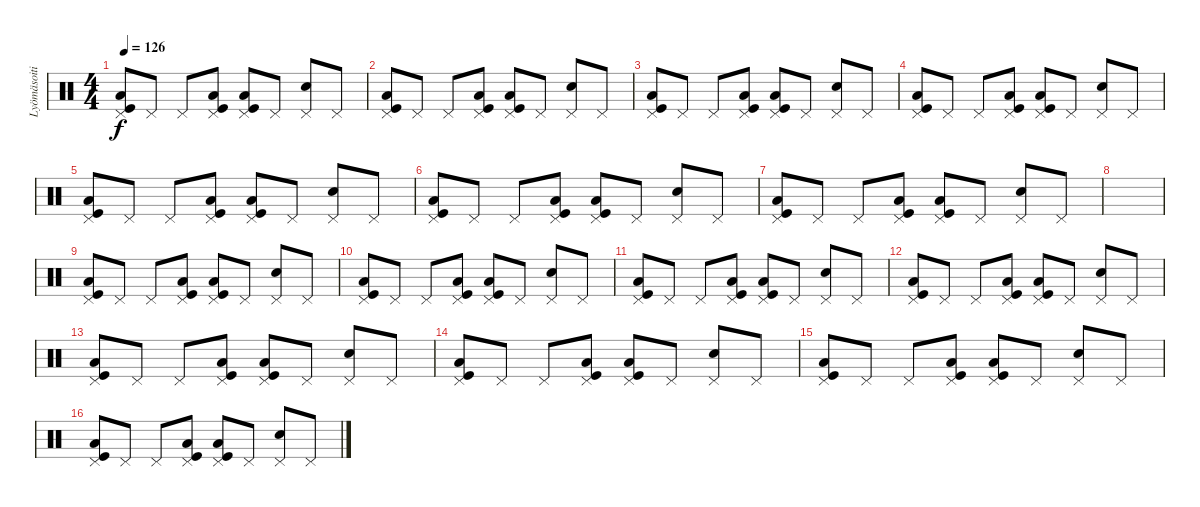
\track ("Lyömäsoitin" "Lyömäsoiti") {instrument percussion}
\staff {score}
\articulation defaults
\ts (4 4)
\tempo 126
\clef neutral
\ks c
("Kick (hit)" "Low Floor Tom (hit)" "Pedal Hi-Hat (hit)").8{dy f} "Pedal Hi-Hat (hit)".8 "Pedal Hi-Hat (hit)".8 ("Kick (hit)" "Low Floor Tom (hit)" "Pedal Hi-Hat (hit)").8 ("Kick (hit)" "Low Floor Tom (hit)" "Pedal Hi-Hat (hit)").8 "Pedal Hi-Hat (hit)".8 ("Snare (hit) 2" "Pedal Hi-Hat (hit)").8 "Pedal Hi-Hat (hit)".8 |
("Kick (hit)" "Low Floor Tom (hit)" "Pedal Hi-Hat (hit)").8 "Pedal Hi-Hat (hit)".8 "Pedal Hi-Hat (hit)".8 ("Kick (hit)" "Low Floor Tom (hit)" "Pedal Hi-Hat (hit)").8 ("Kick (hit)" "Low Floor Tom (hit)" "Pedal Hi-Hat (hit)").8 "Pedal Hi-Hat (hit)".8 ("Snare (hit) 2" "Pedal Hi-Hat (hit)").8 "Pedal Hi-Hat (hit)".8 |
("Kick (hit)" "Low Floor Tom (hit)" "Pedal Hi-Hat (hit)").8 "Pedal Hi-Hat (hit)".8 "Pedal Hi-Hat (hit)".8 ("Kick (hit)" "Low Floor Tom (hit)" "Pedal Hi-Hat (hit)").8 ("Kick (hit)" "Low Floor Tom (hit)" "Pedal Hi-Hat (hit)").8 "Pedal Hi-Hat (hit)".8 ("Snare (hit) 2" "Pedal Hi-Hat (hit)").8 "Pedal Hi-Hat (hit)".8 |
("Kick (hit)" "Low Floor Tom (hit)" "Pedal Hi-Hat (hit)").8 "Pedal Hi-Hat (hit)".8 "Pedal Hi-Hat (hit)".8 ("Kick (hit)" "Low Floor Tom (hit)" "Pedal Hi-Hat (hit)").8 ("Kick (hit)" "Low Floor Tom (hit)" "Pedal Hi-Hat (hit)").8 "Pedal Hi-Hat (hit)".8 ("Snare (hit) 2" "Pedal Hi-Hat (hit)").8 "Pedal Hi-Hat (hit)".8 |
("Kick (hit)" "Low Floor Tom (hit)" "Pedal Hi-Hat (hit)").8 "Pedal Hi-Hat (hit)".8 "Pedal Hi-Hat (hit)".8 ("Kick (hit)" "Low Floor Tom (hit)" "Pedal Hi-Hat (hit)").8 ("Kick (hit)" "Low Floor Tom (hit)" "Pedal Hi-Hat (hit)").8 "Pedal Hi-Hat (hit)".8 ("Snare (hit) 2" "Pedal Hi-Hat (hit)").8 "Pedal Hi-Hat (hit)".8 |
("Kick (hit)" "Low Floor Tom (hit)" "Pedal Hi-Hat (hit)").8 "Pedal Hi-Hat (hit)".8 "Pedal Hi-Hat (hit)".8 ("Kick (hit)" "Low Floor Tom (hit)" "Pedal Hi-Hat (hit)").8 ("Kick (hit)" "Low Floor Tom (hit)" "Pedal Hi-Hat (hit)").8 "Pedal Hi-Hat (hit)".8 ("Snare (hit) 2" "Pedal Hi-Hat (hit)").8 "Pedal Hi-Hat (hit)".8 |
("Kick (hit)" "Low Floor Tom (hit)" "Pedal Hi-Hat (hit)").8 "Pedal Hi-Hat (hit)".8 "Pedal Hi-Hat (hit)".8 ("Kick (hit)" "Low Floor Tom (hit)" "Pedal Hi-Hat (hit)").8 ("Kick (hit)" "Low Floor Tom (hit)" "Pedal Hi-Hat (hit)").8 "Pedal Hi-Hat (hit)".8 ("Snare (hit) 2" "Pedal Hi-Hat (hit)").8 "Pedal Hi-Hat (hit)".8 |
|
("Kick (hit)" "Low Floor Tom (hit)" "Pedal Hi-Hat (hit)").8 "Pedal Hi-Hat (hit)".8 "Pedal Hi-Hat (hit)".8 ("Kick (hit)" "Low Floor Tom (hit)" "Pedal Hi-Hat (hit)").8 ("Kick (hit)" "Low Floor Tom (hit)" "Pedal Hi-Hat (hit)").8 "Pedal Hi-Hat (hit)".8 ("Snare (hit) 2" "Pedal Hi-Hat (hit)").8 "Pedal Hi-Hat (hit)".8 |
("Kick (hit)" "Low Floor Tom (hit)" "Pedal Hi-Hat (hit)").8 "Pedal Hi-Hat (hit)".8 "Pedal Hi-Hat (hit)".8 ("Kick (hit)" "Low Floor Tom (hit)" "Pedal Hi-Hat (hit)").8 ("Kick (hit)" "Low Floor Tom (hit)" "Pedal Hi-Hat (hit)").8 "Pedal Hi-Hat (hit)".8 ("Snare (hit) 2" "Pedal Hi-Hat (hit)").8 "Pedal Hi-Hat (hit)".8 |
("Kick (hit)" "Low Floor Tom (hit)" "Pedal Hi-Hat (hit)").8 "Pedal Hi-Hat (hit)".8 "Pedal Hi-Hat (hit)".8 ("Kick (hit)" "Low Floor Tom (hit)" "Pedal Hi-Hat (hit)").8 ("Kick (hit)" "Low Floor Tom (hit)" "Pedal Hi-Hat (hit)").8 "Pedal Hi-Hat (hit)".8 ("Snare (hit) 2" "Pedal Hi-Hat (hit)").8 "Pedal Hi-Hat (hit)".8 |
("Kick (hit)" "Low Floor Tom (hit)" "Pedal Hi-Hat (hit)").8 "Pedal Hi-Hat (hit)".8 "Pedal Hi-Hat (hit)".8 ("Kick (hit)" "Low Floor Tom (hit)" "Pedal Hi-Hat (hit)").8 ("Kick (hit)" "Low Floor Tom (hit)" "Pedal Hi-Hat (hit)").8 "Pedal Hi-Hat (hit)".8 ("Snare (hit) 2" "Pedal Hi-Hat (hit)").8 "Pedal Hi-Hat (hit)".8 |
("Kick (hit)" "Low Floor Tom (hit)" "Pedal Hi-Hat (hit)").8 "Pedal Hi-Hat (hit)".8 "Pedal Hi-Hat (hit)".8 ("Kick (hit)" "Low Floor Tom (hit)" "Pedal Hi-Hat (hit)").8 ("Kick (hit)" "Low Floor Tom (hit)" "Pedal Hi-Hat (hit)").8 "Pedal Hi-Hat (hit)".8 ("Snare (hit) 2" "Pedal Hi-Hat (hit)").8 "Pedal Hi-Hat (hit)".8 |
("Kick (hit)" "Low Floor Tom (hit)" "Pedal Hi-Hat (hit)").8 "Pedal Hi-Hat (hit)".8 "Pedal Hi-Hat (hit)".8 ("Kick (hit)" "Low Floor Tom (hit)" "Pedal Hi-Hat (hit)").8 ("Kick (hit)" "Low Floor Tom (hit)" "Pedal Hi-Hat (hit)").8 "Pedal Hi-Hat (hit)".8 ("Snare (hit) 2" "Pedal Hi-Hat (hit)").8 "Pedal Hi-Hat (hit)".8 |
("Kick (hit)" "Low Floor Tom (hit)" "Pedal Hi-Hat (hit)").8 "Pedal Hi-Hat (hit)".8 "Pedal Hi-Hat (hit)".8 ("Kick (hit)" "Low Floor Tom (hit)" "Pedal Hi-Hat (hit)").8 ("Kick (hit)" "Low Floor Tom (hit)" "Pedal Hi-Hat (hit)").8 "Pedal Hi-Hat (hit)".8 ("Snare (hit) 2" "Pedal Hi-Hat (hit)").8 "Pedal Hi-Hat (hit)".8 |
("Kick (hit)" "Low Floor Tom (hit)" "Pedal Hi-Hat (hit)").8 "Pedal Hi-Hat (hit)".8 "Pedal Hi-Hat (hit)".8 ("Kick (hit)" "Low Floor Tom (hit)" "Pedal Hi-Hat (hit)").8 ("Kick (hit)" "Low Floor Tom (hit)" "Pedal Hi-Hat (hit)").8 "Pedal Hi-Hat (hit)".8 ("Snare (hit) 2" "Pedal Hi-Hat (hit)").8 "Pedal Hi-Hat (hit)".8
